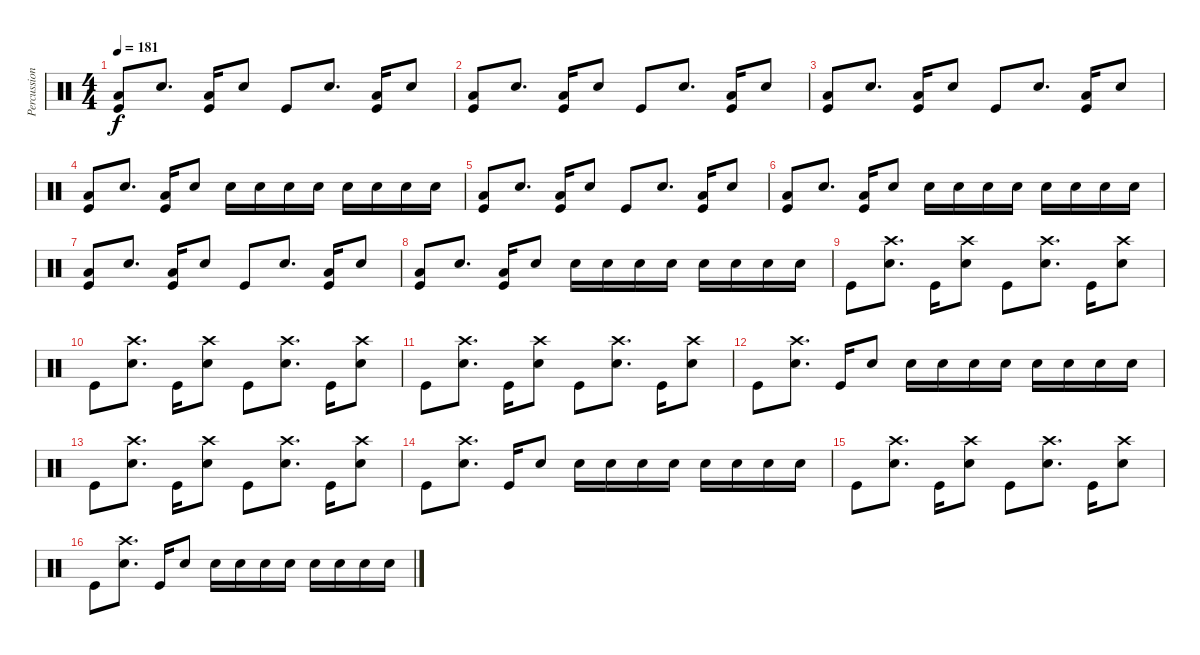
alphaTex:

\track ("Percussion" "Percussion") {instrument percussion}
\staff {score}
\articulation defaults
\ts (4 4)
\tempo 181
\clef neutral
\ks c
("Low Tom (hit)" "Kick (hit)").8{dy f} "Electric Snare (hit)".8{d} ("Low Tom (hit)" "Kick (hit)").16 "Electric Snare (hit)".8 "Kick (hit)".8 "Electric Snare (hit)".8{d} ("Low Tom (hit)" "Kick (hit)").16 "Electric Snare (hit)".8 |
("Low Tom (hit)" "Kick (hit)").8 "Electric Snare (hit)".8{d} ("Low Tom (hit)" "Kick (hit)").16 "Electric Snare (hit)".8 "Kick (hit)".8 "Electric Snare (hit)".8{d} ("Low Tom (hit)" "Kick (hit)").16 "Electric Snare (hit)".8 |
("Low Tom (hit)" "Kick (hit)").8 "Electric Snare (hit)".8{d} ("Low Tom (hit)" "Kick (hit)").16 "Electric Snare (hit)".8 "Kick (hit)".8 "Electric Snare (hit)".8{d} ("Low Tom (hit)" "Kick (hit)").16 "Electric Snare (hit)".8 |
("Low Tom (hit)" "Kick (hit)").8 "Electric Snare (hit)".8{d} ("Low Tom (hit)" "Kick (hit)").16 "Electric Snare (hit)".8 "Electric Snare (hit)".16 "Electric Snare (hit)".16 "Electric Snare (hit)".16 "Electric Snare (hit)".16 "Electric Snare (hit)".16 "Electric Snare (hit)".16 "Electric Snare (hit)".16 "Electric Snare (hit)".16 |
("Low Tom (hit)" "Kick (hit)").8 "Electric Snare (hit)".8{d} ("Low Tom (hit)" "Kick (hit)").16 "Electric Snare (hit)".8 "Kick (hit)".8 "Electric Snare (hit)".8{d} ("Low Tom (hit)" "Kick (hit)").16 "Electric Snare (hit)".8 |
("Low Tom (hit)" "Kick (hit)").8 "Electric Snare (hit)".8{d} ("Low Tom (hit)" "Kick (hit)").16 "Electric Snare (hit)".8 "Electric Snare (hit)".16 "Electric Snare (hit)".16 "Electric Snare (hit)".16 "Electric Snare (hit)".16 "Electric Snare (hit)".16 "Electric Snare (hit)".16 "Electric Snare (hit)".16 "Electric Snare (hit)".16 |
("Low Tom (hit)" "Kick (hit)").8 "Electric Snare (hit)".8{d} ("Low Tom (hit)" "Kick (hit)").16 "Electric Snare (hit)".8 "Kick (hit)".8 "Electric Snare (hit)".8{d} ("Low Tom (hit)" "Kick (hit)").16 "Electric Snare (hit)".8 |
("Low Tom (hit)" "Kick (hit)").8 "Electric Snare (hit)".8{d} ("Low Tom (hit)" "Kick (hit)").16 "Electric Snare (hit)".8 "Electric Snare (hit)".16 "Electric Snare (hit)".16 "Electric Snare (hit)".16 "Electric Snare (hit)".16 "Electric Snare (hit)".16 "Electric Snare (hit)".16 "Electric Snare (hit)".16 "Electric Snare (hit)".16 |
"Kick (hit)".8 ("Crash high (hit)" "Electric Snare (hit)").8{d} "Kick (hit)".16 ("Crash high (hit)" "Electric Snare (hit)").8 "Kick (hit)".8 ("Crash high (hit)" "Electric Snare (hit)").8{d} "Kick (hit)".16 ("Crash high (hit)" "Electric Snare (hit)").8 |
"Kick (hit)".8 ("Crash high (hit)" "Electric Snare (hit)").8{d} "Kick (hit)".16 ("Crash high (hit)" "Electric Snare (hit)").8 "Kick (hit)".8 ("Crash high (hit)" "Electric Snare (hit)").8{d} "Kick (hit)".16 ("Crash high (hit)" "Electric Snare (hit)").8 |
"Kick (hit)".8 ("Crash high (hit)" "Electric Snare (hit)").8{d} "Kick (hit)".16 ("Crash high (hit)" "Electric Snare (hit)").8 "Kick (hit)".8 ("Crash high (hit)" "Electric Snare (hit)").8{d} "Kick (hit)".16 ("Crash high (hit)" "Electric Snare (hit)").8 |
"Kick (hit)".8 ("Crash high (hit)" "Electric Snare (hit)").8{d} "Kick (hit)".16 "Electric Snare (hit)".8 "Electric Snare (hit)".16 "Electric Snare (hit)".16 "Electric Snare (hit)".16 "Electric Snare (hit)".16 "Electric Snare (hit)".16 "Electric Snare (hit)".16 "Electric Snare (hit)".16 "Electric Snare (hit)".16 |
"Kick (hit)".8 ("Crash high (hit)" "Electric Snare (hit)").8{d} "Kick (hit)".16 ("Crash high (hit)" "Electric Snare (hit)").8 "Kick (hit)".8 ("Crash high (hit)" "Electric Snare (hit)").8{d} "Kick (hit)".16 ("Crash high (hit)" "Electric Snare (hit)").8 |
"Kick (hit)".8 ("Crash high (hit)" "Electric Snare (hit)").8{d} "Kick (hit)".16 "Electric Snare (hit)".8 "Electric Snare (hit)".16 "Electric Snare (hit)".16 "Electric Snare (hit)".16 "Electric Snare (hit)".16 "Electric Snare (hit)".16 "Electric Snare (hit)".16 "Electric Snare (hit)".16 "Electric Snare (hit)".16 |
"Kick (hit)".8 ("Crash high (hit)" "Electric Snare (hit)").8{d} "Kick (hit)".16 ("Crash high (hit)" "Electric Snare (hit)").8 "Kick (hit)".8 ("Crash high (hit)" "Electric Snare (hit)").8{d} "Kick (hit)".16 ("Crash high (hit)" "Electric Snare (hit)").8 |
"Kick (hit)".8 ("Crash high (hit)" "Electric Snare (hit)").8{d} "Kick (hit)".16 "Electric Snare (hit)".8 "Electric Snare (hit)".16 "Electric Snare (hit)".16 "Electric Snare (hit)".16 "Electric Snare (hit)".16 "Electric Snare (hit)".16 "Electric Snare (hit)".16 "Electric Snare (hit)".16 "Electric Snare (hit)".16
